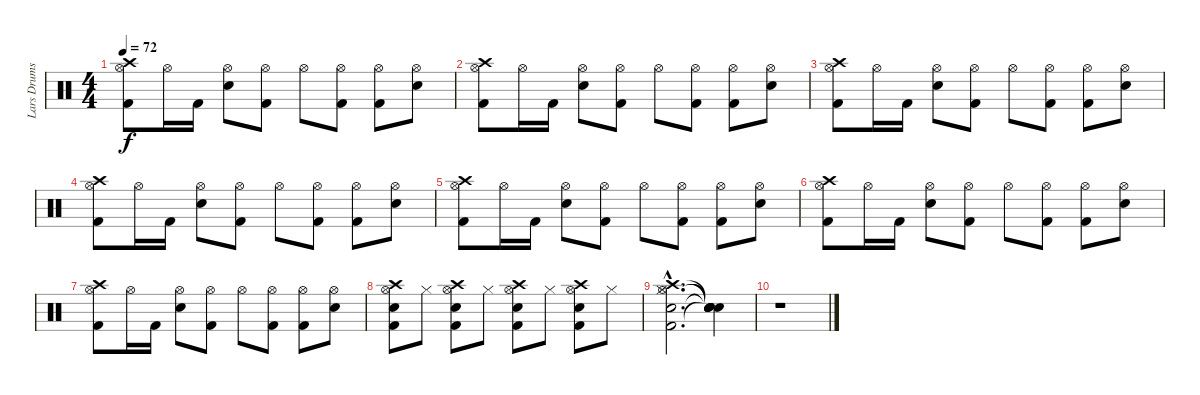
\track ("Lars Drums" "Lars Drums") {instrument percussion}
\staff {score}
\articulation defaults
\ts (4 4)
\tempo 72
\clef neutral
\ks c
("Kick (hit) 2" "Hi-Hat (open)" "Crash high (hit)").8{dy f} "Hi-Hat (open)".16 "Kick (hit) 2".16 ("Snare (hit) 2" "Hi-Hat (open)").8 ("Kick (hit) 2" "Hi-Hat (open)").8 "Hi-Hat (open)".8 ("Kick (hit) 2" "Hi-Hat (open)").8 ("Kick (hit) 2" "Hi-Hat (open)").8 ("Snare (hit) 2" "Hi-Hat (open)").8 |
("Kick (hit) 2" "Hi-Hat (open)" "Crash high (hit)").8 "Hi-Hat (open)".16 "Kick (hit) 2".16 ("Snare (hit) 2" "Hi-Hat (open)").8 ("Kick (hit) 2" "Hi-Hat (open)").8 "Hi-Hat (open)".8 ("Kick (hit) 2" "Hi-Hat (open)").8 ("Kick (hit) 2" "Hi-Hat (open)").8 ("Snare (hit) 2" "Hi-Hat (open)").8 |
("Kick (hit) 2" "Hi-Hat (open)" "Crash high (hit)").8 "Hi-Hat (open)".16 "Kick (hit) 2".16 ("Snare (hit) 2" "Hi-Hat (open)").8 ("Kick (hit) 2" "Hi-Hat (open)").8 "Hi-Hat (open)".8 ("Kick (hit) 2" "Hi-Hat (open)").8 ("Kick (hit) 2" "Hi-Hat (open)").8 ("Snare (hit) 2" "Hi-Hat (open)").8 |
("Kick (hit) 2" "Hi-Hat (open)" "Crash high (hit)").8 "Hi-Hat (open)".16 "Kick (hit) 2".16 ("Snare (hit) 2" "Hi-Hat (open)").8 ("Kick (hit) 2" "Hi-Hat (open)").8 "Hi-Hat (open)".8 ("Kick (hit) 2" "Hi-Hat (open)").8 ("Kick (hit) 2" "Hi-Hat (open)").8 ("Snare (hit) 2" "Hi-Hat (open)").8 |
("Kick (hit) 2" "Hi-Hat (open)" "Crash high (hit)").8 "Hi-Hat (open)".16 "Kick (hit) 2".16 ("Snare (hit) 2" "Hi-Hat (open)").8 ("Kick (hit) 2" "Hi-Hat (open)").8 "Hi-Hat (open)".8 ("Kick (hit) 2" "Hi-Hat (open)").8 ("Kick (hit) 2" "Hi-Hat (open)").8 ("Snare (hit) 2" "Hi-Hat (open)").8 |
("Kick (hit) 2" "Hi-Hat (open)" "Crash high (hit)").8 "Hi-Hat (open)".16 "Kick (hit) 2".16 ("Snare (hit) 2" "Hi-Hat (open)").8 ("Kick (hit) 2" "Hi-Hat (open)").8 "Hi-Hat (open)".8 ("Kick (hit) 2" "Hi-Hat (open)").8 ("Kick (hit) 2" "Hi-Hat (open)").8 ("Snare (hit) 2" "Hi-Hat (open)").8 |
("Kick (hit) 2" "Hi-Hat (open)" "Crash high (hit)").8 "Hi-Hat (open)".16 "Kick (hit) 2".16 ("Snare (hit) 2" "Hi-Hat (open)").8 ("Kick (hit) 2" "Hi-Hat (open)").8 "Hi-Hat (open)".8 ("Kick (hit) 2" "Hi-Hat (open)").8 ("Kick (hit) 2" "Hi-Hat (open)").8 ("Snare (hit) 2" "Hi-Hat (open)").8 |
("Kick (hit) 2" "Snare (hit) 2" "Hi-Hat (open)" "Crash high (hit)").8 "Hi-Hat (closed)".8 ("Kick (hit) 2" "Snare (hit) 2" "Hi-Hat (open)" "Crash high (hit)").8 "Hi-Hat (closed)".8 ("Kick (hit) 2" "Snare (hit) 2" "Hi-Hat (open)" "Crash high (hit)").8 "Hi-Hat (closed)".8 ("Kick (hit) 2" "Snare (hit) 2" "Hi-Hat (open)" "Crash high (hit)").8 "Hi-Hat (closed)".8 |
("Kick (hit) 2"{hac} "Snare (hit) 2"{hac} "Hi-Hat (closed)"{hac} "Hi-Hat (open)"{hac} "Crash high (hit)"{hac}).2{d} ("Snare (hit)"{t} "Snare (hit)"{t} "Snare (hit)"{t} "Snare (hit)"{t} "Snare (hit)"{t}).4 |
r.1
